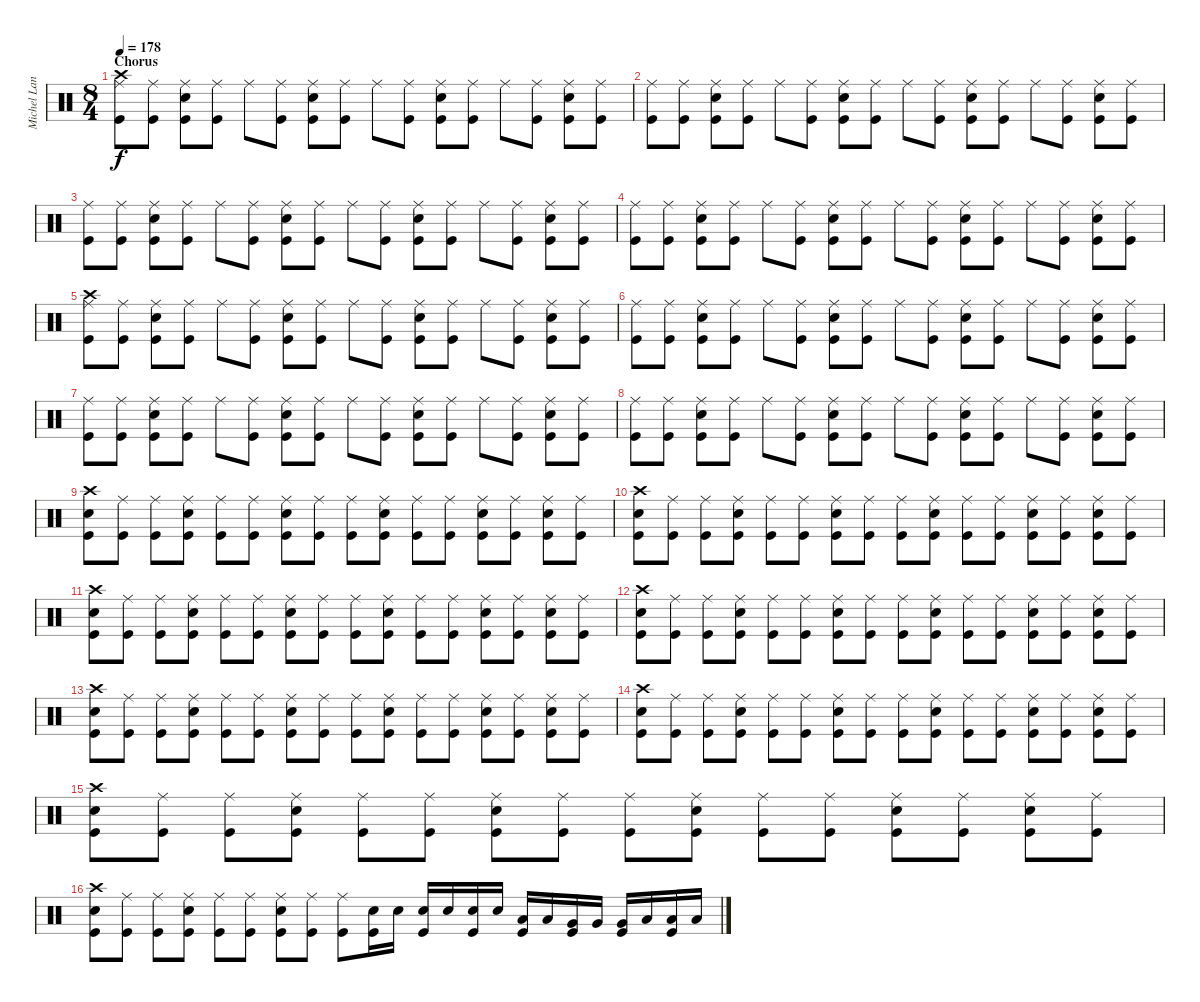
\track ("Michel Langevin [Drums]" "Michel Lan") {instrument percussion}
\staff {score}
\articulation defaults
\ts (8 4)
\section ("" "Chorus")
\tempo 178
\clef neutral
\ks c
("Kick (hit)" "Ride (middle)" "Crash high (hit)").8{dy f} ("Kick (hit)" "Ride (middle)").8 ("Snare (hit) 2" "Kick (hit)" "Ride (middle)").8 ("Kick (hit)" "Ride (middle)").8 "Ride (middle)".8 ("Kick (hit)" "Ride (middle)").8 ("Snare (hit) 2" "Kick (hit)" "Ride (middle)").8 ("Kick (hit)" "Ride (middle)").8 "Ride (middle)".8 ("Kick (hit)" "Ride (middle)").8 ("Snare (hit) 2" "Kick (hit)" "Ride (middle)").8 ("Kick (hit)" "Ride (middle)").8 "Ride (middle)".8 ("Kick (hit)" "Ride (middle)").8 ("Snare (hit) 2" "Kick (hit)" "Ride (middle)").8 ("Kick (hit)" "Ride (middle)").8 |
("Kick (hit)" "Ride (middle)").8 ("Kick (hit)" "Ride (middle)").8 ("Snare (hit) 2" "Kick (hit)" "Ride (middle)").8 ("Kick (hit)" "Ride (middle)").8 "Ride (middle)".8 ("Kick (hit)" "Ride (middle)").8 ("Snare (hit) 2" "Kick (hit)" "Ride (middle)").8 ("Kick (hit)" "Ride (middle)").8 "Ride (middle)".8 ("Kick (hit)" "Ride (middle)").8 ("Snare (hit) 2" "Kick (hit)" "Ride (middle)").8 ("Kick (hit)" "Ride (middle)").8 "Ride (middle)".8 ("Kick (hit)" "Ride (middle)").8 ("Snare (hit) 2" "Kick (hit)" "Ride (middle)").8 ("Kick (hit)" "Ride (middle)").8 |
("Kick (hit)" "Ride (middle)").8 ("Kick (hit)" "Ride (middle)").8 ("Snare (hit) 2" "Kick (hit)" "Ride (middle)").8 ("Kick (hit)" "Ride (middle)").8 "Ride (middle)".8 ("Kick (hit)" "Ride (middle)").8 ("Snare (hit) 2" "Kick (hit)" "Ride (middle)").8 ("Kick (hit)" "Ride (middle)").8 "Ride (middle)".8 ("Kick (hit)" "Ride (middle)").8 ("Snare (hit) 2" "Kick (hit)" "Ride (middle)").8 ("Kick (hit)" "Ride (middle)").8 "Ride (middle)".8 ("Kick (hit)" "Ride (middle)").8 ("Snare (hit) 2" "Kick (hit)" "Ride (middle)").8 ("Kick (hit)" "Ride (middle)").8 |
("Kick (hit)" "Ride (middle)").8 ("Kick (hit)" "Ride (middle)").8 ("Snare (hit) 2" "Kick (hit)" "Ride (middle)").8 ("Kick (hit)" "Ride (middle)").8 "Ride (middle)".8 ("Kick (hit)" "Ride (middle)").8 ("Snare (hit) 2" "Kick (hit)" "Ride (middle)").8 ("Kick (hit)" "Ride (middle)").8 "Ride (middle)".8 ("Kick (hit)" "Ride (middle)").8 ("Snare (hit) 2" "Kick (hit)" "Ride (middle)").8 ("Kick (hit)" "Ride (middle)").8 "Ride (middle)".8 ("Kick (hit)" "Ride (middle)").8 ("Snare (hit) 2" "Kick (hit)" "Ride (middle)").8 ("Kick (hit)" "Ride (middle)").8 |
("Kick (hit)" "Ride (middle)" "Crash high (hit)").8 ("Kick (hit)" "Ride (middle)").8 ("Snare (hit) 2" "Kick (hit)" "Ride (middle)").8 ("Kick (hit)" "Ride (middle)").8 "Ride (middle)".8 ("Kick (hit)" "Ride (middle)").8 ("Snare (hit) 2" "Kick (hit)" "Ride (middle)").8 ("Kick (hit)" "Ride (middle)").8 "Ride (middle)".8 ("Kick (hit)" "Ride (middle)").8 ("Snare (hit) 2" "Kick (hit)" "Ride (middle)").8 ("Kick (hit)" "Ride (middle)").8 "Ride (middle)".8 ("Kick (hit)" "Ride (middle)").8 ("Snare (hit) 2" "Kick (hit)" "Ride (middle)").8 ("Kick (hit)" "Ride (middle)").8 |
("Kick (hit)" "Ride (middle)").8 ("Kick (hit)" "Ride (middle)").8 ("Snare (hit) 2" "Kick (hit)" "Ride (middle)").8 ("Kick (hit)" "Ride (middle)").8 "Ride (middle)".8 ("Kick (hit)" "Ride (middle)").8 ("Snare (hit) 2" "Kick (hit)" "Ride (middle)").8 ("Kick (hit)" "Ride (middle)").8 "Ride (middle)".8 ("Kick (hit)" "Ride (middle)").8 ("Snare (hit) 2" "Kick (hit)" "Ride (middle)").8 ("Kick (hit)" "Ride (middle)").8 "Ride (middle)".8 ("Kick (hit)" "Ride (middle)").8 ("Snare (hit) 2" "Kick (hit)" "Ride (middle)").8 ("Kick (hit)" "Ride (middle)").8 |
("Kick (hit)" "Ride (middle)").8 ("Kick (hit)" "Ride (middle)").8 ("Snare (hit) 2" "Kick (hit)" "Ride (middle)").8 ("Kick (hit)" "Ride (middle)").8 "Ride (middle)".8 ("Kick (hit)" "Ride (middle)").8 ("Snare (hit) 2" "Kick (hit)" "Ride (middle)").8 ("Kick (hit)" "Ride (middle)").8 "Ride (middle)".8 ("Kick (hit)" "Ride (middle)").8 ("Snare (hit) 2" "Kick (hit)" "Ride (middle)").8 ("Kick (hit)" "Ride (middle)").8 "Ride (middle)".8 ("Kick (hit)" "Ride (middle)").8 ("Snare (hit) 2" "Kick (hit)" "Ride (middle)").8 ("Kick (hit)" "Ride (middle)").8 |
("Kick (hit)" "Ride (middle)").8 ("Kick (hit)" "Ride (middle)").8 ("Snare (hit) 2" "Kick (hit)" "Ride (middle)").8 ("Kick (hit)" "Ride (middle)").8 "Ride (middle)".8 ("Kick (hit)" "Ride (middle)").8 ("Snare (hit) 2" "Kick (hit)" "Ride (middle)").8 ("Kick (hit)" "Ride (middle)").8 "Ride (middle)".8 ("Kick (hit)" "Ride (middle)").8 ("Snare (hit) 2" "Kick (hit)" "Ride (middle)").8 ("Kick (hit)" "Ride (middle)").8 "Ride (middle)".8 ("Kick (hit)" "Ride (middle)").8 ("Snare (hit) 2" "Kick (hit)" "Ride (middle)").8 ("Kick (hit)" "Ride (middle)").8 |
("Snare (hit) 2" "Kick (hit)" "Crash high (hit)").8 ("Kick (hit)" "Ride (middle)").8 ("Kick (hit)" "Ride (middle)").8 ("Snare (hit) 2" "Kick (hit)" "Ride (middle)").8 ("Kick (hit)" "Ride (middle)").8 ("Kick (hit)" "Ride (middle)").8 ("Snare (hit) 2" "Kick (hit)" "Ride (middle)").8 ("Kick (hit)" "Ride (middle)").8 ("Kick (hit)" "Ride (middle)").8 ("Snare (hit) 2" "Kick (hit)" "Ride (middle)").8 ("Kick (hit)" "Ride (middle)").8 ("Kick (hit)" "Ride (middle)").8 ("Snare (hit) 2" "Kick (hit)" "Ride (middle)").8 ("Kick (hit)" "Ride (middle)").8 ("Snare (hit) 2" "Kick (hit)" "Ride (middle)").8 ("Kick (hit)" "Ride (middle)").8 |
("Snare (hit) 2" "Kick (hit)" "Crash high (hit)").8 ("Kick (hit)" "Ride (middle)").8 ("Kick (hit)" "Ride (middle)").8 ("Snare (hit) 2" "Kick (hit)" "Ride (middle)").8 ("Kick (hit)" "Ride (middle)").8 ("Kick (hit)" "Ride (middle)").8 ("Snare (hit) 2" "Kick (hit)" "Ride (middle)").8 ("Kick (hit)" "Ride (middle)").8 ("Kick (hit)" "Ride (middle)").8 ("Snare (hit) 2" "Kick (hit)" "Ride (middle)").8 ("Kick (hit)" "Ride (middle)").8 ("Kick (hit)" "Ride (middle)").8 ("Snare (hit) 2" "Kick (hit)" "Ride (middle)").8 ("Kick (hit)" "Ride (middle)").8 ("Snare (hit) 2" "Kick (hit)" "Ride (middle)").8 ("Kick (hit)" "Ride (middle)").8 |
("Snare (hit) 2" "Kick (hit)" "Crash high (hit)").8 ("Kick (hit)" "Ride (middle)").8 ("Kick (hit)" "Ride (middle)").8 ("Snare (hit) 2" "Kick (hit)" "Ride (middle)").8 ("Kick (hit)" "Ride (middle)").8 ("Kick (hit)" "Ride (middle)").8 ("Snare (hit) 2" "Kick (hit)" "Ride (middle)").8 ("Kick (hit)" "Ride (middle)").8 ("Kick (hit)" "Ride (middle)").8 ("Snare (hit) 2" "Kick (hit)" "Ride (middle)").8 ("Kick (hit)" "Ride (middle)").8 ("Kick (hit)" "Ride (middle)").8 ("Snare (hit) 2" "Kick (hit)" "Ride (middle)").8 ("Kick (hit)" "Ride (middle)").8 ("Snare (hit) 2" "Kick (hit)" "Ride (middle)").8 ("Kick (hit)" "Ride (middle)").8 |
("Snare (hit) 2" "Kick (hit)" "Crash high (hit)").8 ("Kick (hit)" "Ride (middle)").8 ("Kick (hit)" "Ride (middle)").8 ("Snare (hit) 2" "Kick (hit)" "Ride (middle)").8 ("Kick (hit)" "Ride (middle)").8 ("Kick (hit)" "Ride (middle)").8 ("Snare (hit) 2" "Kick (hit)" "Ride (middle)").8 ("Kick (hit)" "Ride (middle)").8 ("Kick (hit)" "Ride (middle)").8 ("Snare (hit) 2" "Kick (hit)" "Ride (middle)").8 ("Kick (hit)" "Ride (middle)").8 ("Kick (hit)" "Ride (middle)").8 ("Snare (hit) 2" "Kick (hit)" "Ride (middle)").8 ("Kick (hit)" "Ride (middle)").8 ("Snare (hit) 2" "Kick (hit)" "Ride (middle)").8 ("Kick (hit)" "Ride (middle)").8 |
("Snare (hit) 2" "Kick (hit)" "Crash high (hit)").8 ("Kick (hit)" "Ride (middle)").8 ("Kick (hit)" "Ride (middle)").8 ("Snare (hit) 2" "Kick (hit)" "Ride (middle)").8 ("Kick (hit)" "Ride (middle)").8 ("Kick (hit)" "Ride (middle)").8 ("Snare (hit) 2" "Kick (hit)" "Ride (middle)").8 ("Kick (hit)" "Ride (middle)").8 ("Kick (hit)" "Ride (middle)").8 ("Snare (hit) 2" "Kick (hit)" "Ride (middle)").8 ("Kick (hit)" "Ride (middle)").8 ("Kick (hit)" "Ride (middle)").8 ("Snare (hit) 2" "Kick (hit)" "Ride (middle)").8 ("Kick (hit)" "Ride (middle)").8 ("Snare (hit) 2" "Kick (hit)" "Ride (middle)").8 ("Kick (hit)" "Ride (middle)").8 |
("Snare (hit) 2" "Kick (hit)" "Crash high (hit)").8 ("Kick (hit)" "Ride (middle)").8 ("Kick (hit)" "Ride (middle)").8 ("Snare (hit) 2" "Kick (hit)" "Ride (middle)").8 ("Kick (hit)" "Ride (middle)").8 ("Kick (hit)" "Ride (middle)").8 ("Snare (hit) 2" "Kick (hit)" "Ride (middle)").8 ("Kick (hit)" "Ride (middle)").8 ("Kick (hit)" "Ride (middle)").8 ("Snare (hit) 2" "Kick (hit)" "Ride (middle)").8 ("Kick (hit)" "Ride (middle)").8 ("Kick (hit)" "Ride (middle)").8 ("Snare (hit) 2" "Kick (hit)" "Ride (middle)").8 ("Kick (hit)" "Ride (middle)").8 ("Snare (hit) 2" "Kick (hit)" "Ride (middle)").8 ("Kick (hit)" "Ride (middle)").8 |
("Snare (hit) 2" "Kick (hit)" "Crash high (hit)").8 ("Kick (hit)" "Ride (middle)").8 ("Kick (hit)" "Ride (middle)").8 ("Snare (hit) 2" "Kick (hit)" "Ride (middle)").8 ("Kick (hit)" "Ride (middle)").8 ("Kick (hit)" "Ride (middle)").8 ("Snare (hit) 2" "Kick (hit)" "Ride (middle)").8 ("Kick (hit)" "Ride (middle)").8 ("Kick (hit)" "Ride (middle)").8 ("Snare (hit) 2" "Kick (hit)" "Ride (middle)").8 ("Kick (hit)" "Ride (middle)").8 ("Kick (hit)" "Ride (middle)").8 ("Snare (hit) 2" "Kick (hit)" "Ride (middle)").8 ("Kick (hit)" "Ride (middle)").8 ("Snare (hit) 2" "Kick (hit)" "Ride (middle)").8 ("Kick (hit)" "Ride (middle)").8 |
("Snare (hit) 2" "Kick (hit)" "Crash high (hit)").8 ("Kick (hit)" "Ride (middle)").8 ("Kick (hit)" "Ride (middle)").8 ("Snare (hit) 2" "Kick (hit)" "Ride (middle)").8 ("Kick (hit)" "Ride (middle)").8 ("Kick (hit)" "Ride (middle)").8 ("Snare (hit) 2" "Kick (hit)" "Ride (middle)").8 ("Kick (hit)" "Ride (middle)").8 ("Kick (hit)" "Ride (middle)").8 ("Snare (hit) 2" "Kick (hit)").16 "Snare (hit) 2".16 ("Snare (hit) 2" "Kick (hit)").16 "Snare (hit) 2".16 ("Snare (hit) 2" "Kick (hit)").16 "Snare (hit) 2".16 ("Low Tom (hit)" "Kick (hit)").16 "Low Tom (hit)".16 ("Very Low Tom (hit)" "Kick (hit)").16 "Very Low Tom (hit)".16 ("Very Low Tom (hit)" "Kick (hit)").16 "Low Floor Tom (hit)".16 ("Low Floor Tom (hit)" "Kick (hit)").16 "Low Floor Tom (hit)".16
